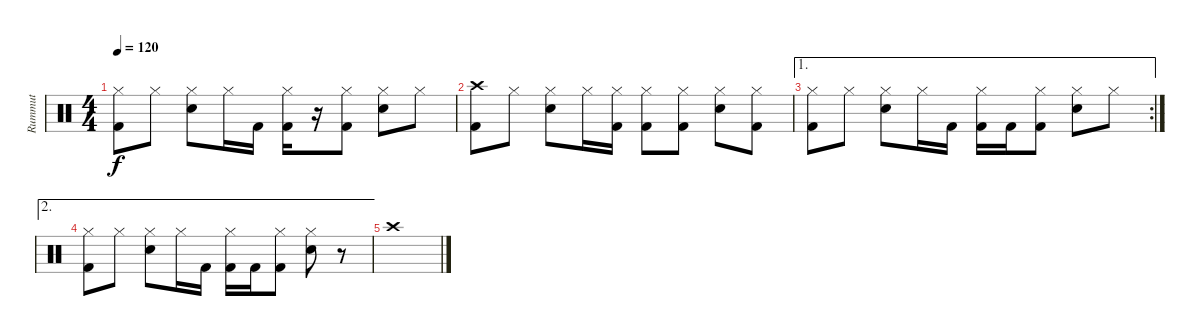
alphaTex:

\track ("Rummut" "Rummut") {instrument percussion}
\staff {score}
\articulation defaults
\ts (4 4)
\tempo 120
\clef neutral
\ks c
("Hi-Hat (closed)" "Kick (hit) 2").8{dy f} "Hi-Hat (closed)".8 ("Hi-Hat (closed)" "Electric Snare (hit)").8 "Hi-Hat (closed)".16 "Kick (hit) 2".16 ("Hi-Hat (closed)" "Kick (hit) 2").16 r.16 ("Hi-Hat (closed)" "Kick (hit) 2").8 ("Hi-Hat (closed)" "Electric Snare (hit)").8 "Hi-Hat (closed)".8 |
("Crash high (hit)" "Kick (hit) 2").8 "Hi-Hat (closed)".8 ("Hi-Hat (closed)" "Electric Snare (hit)").8 "Hi-Hat (closed)".16 ("Hi-Hat (closed)" "Kick (hit) 2").16 ("Hi-Hat (closed)" "Kick (hit) 2").8 ("Hi-Hat (closed)" "Kick (hit) 2").8 ("Hi-Hat (closed)" "Electric Snare (hit)").8 ("Hi-Hat (closed)" "Kick (hit) 2").8 |
\ae 1
\rc 2
("Hi-Hat (closed)" "Kick (hit) 2").8 "Hi-Hat (closed)".8 ("Hi-Hat (closed)" "Electric Snare (hit)").8 "Hi-Hat (closed)".16 "Kick (hit) 2".16 ("Hi-Hat (closed)" "Kick (hit) 2").16 "Kick (hit) 2".16 ("Hi-Hat (closed)" "Kick (hit) 2").8 ("Hi-Hat (closed)" "Electric Snare (hit)").8 "Hi-Hat (closed)".8 |
\ae 2
("Hi-Hat (closed)" "Kick (hit) 2").8 "Hi-Hat (closed)".8 ("Hi-Hat (closed)" "Electric Snare (hit)").8 "Hi-Hat (closed)".16 "Kick (hit) 2".16 ("Hi-Hat (closed)" "Kick (hit) 2").16 "Kick (hit) 2".16 ("Hi-Hat (closed)" "Kick (hit) 2").8 ("Hi-Hat (closed)" "Electric Snare (hit)").8 r.8 |
"Crash high (hit)".1
